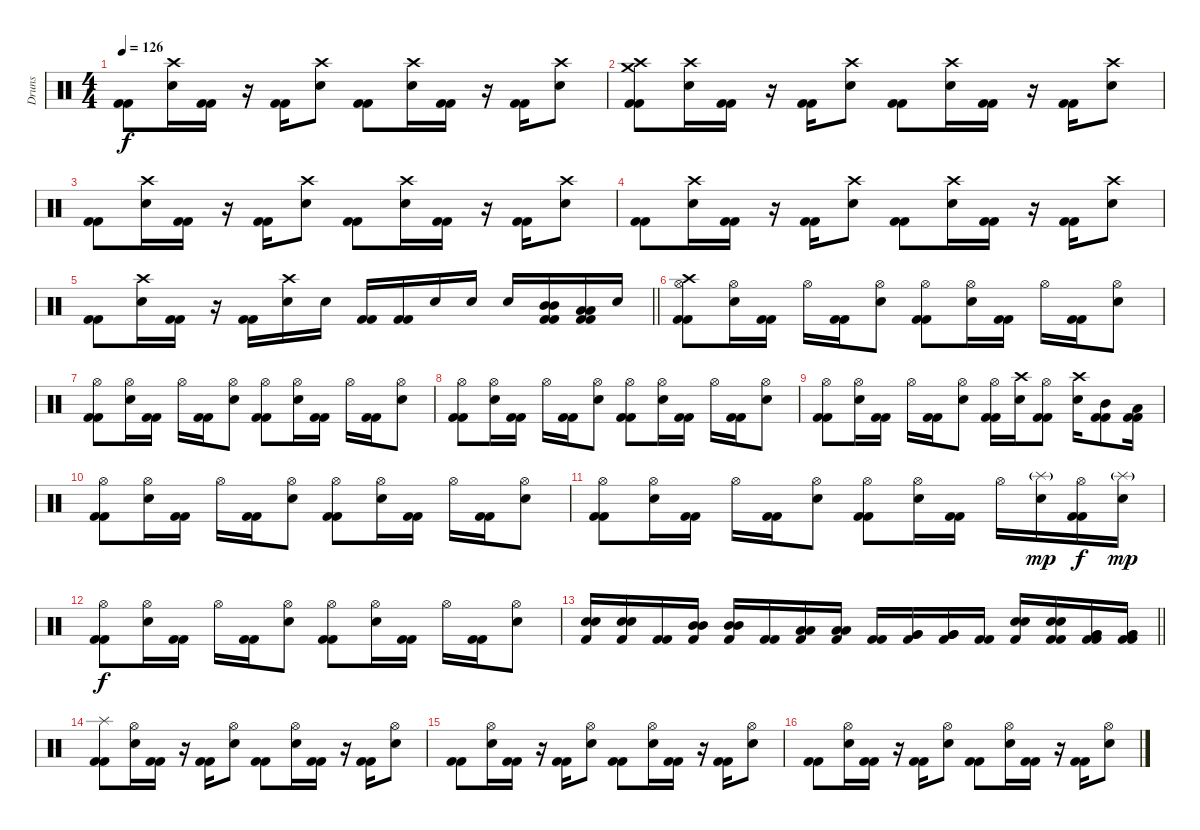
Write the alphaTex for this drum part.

\track ("Druns" "Druns") {instrument percussion}
\staff {score}
\articulation defaults
\ts (4 4)
\tempo 126
\clef neutral
\ks c
("Kick (hit) 2" "Kick (hit) 2").8{dy f} ("Crash high (hit)" "Electric Snare (hit)").16 ("Kick (hit) 2" "Kick (hit) 2").16 r.16 ("Kick (hit) 2" "Kick (hit) 2").16 ("Crash high (hit)" "Electric Snare (hit)").8 ("Kick (hit) 2" "Kick (hit) 2").8 ("Crash high (hit)" "Electric Snare (hit)").16 ("Kick (hit) 2" "Kick (hit) 2").16 r.16 ("Kick (hit) 2" "Kick (hit) 2").16 ("Crash high (hit)" "Electric Snare (hit)").8 |
("Crash medium (hit)" "Crash high (hit)" "Kick (hit) 2" "Kick (hit) 2").8 ("Crash high (hit)" "Electric Snare (hit)").16 ("Kick (hit) 2" "Kick (hit) 2").16 r.16 ("Kick (hit) 2" "Kick (hit) 2").16 ("Crash high (hit)" "Electric Snare (hit)").8 ("Kick (hit) 2" "Kick (hit) 2").8 ("Crash high (hit)" "Electric Snare (hit)").16 ("Kick (hit) 2" "Kick (hit) 2").16 r.16 ("Kick (hit) 2" "Kick (hit) 2").16 ("Crash high (hit)" "Electric Snare (hit)").8 |
("Kick (hit) 2" "Kick (hit) 2").8 ("Crash high (hit)" "Electric Snare (hit)").16 ("Kick (hit) 2" "Kick (hit) 2").16 r.16 ("Kick (hit) 2" "Kick (hit) 2").16 ("Crash high (hit)" "Electric Snare (hit)").8 ("Kick (hit) 2" "Kick (hit) 2").8 ("Crash high (hit)" "Electric Snare (hit)").16 ("Kick (hit) 2" "Kick (hit) 2").16 r.16 ("Kick (hit) 2" "Kick (hit) 2").16 ("Crash high (hit)" "Electric Snare (hit)").8 |
("Kick (hit) 2" "Kick (hit) 2").8 ("Crash high (hit)" "Electric Snare (hit)").16 ("Kick (hit) 2" "Kick (hit) 2").16 r.16 ("Kick (hit) 2" "Kick (hit) 2").16 ("Crash high (hit)" "Electric Snare (hit)").8 ("Kick (hit) 2" "Kick (hit) 2").8 ("Crash high (hit)" "Electric Snare (hit)").16 ("Kick (hit) 2" "Kick (hit) 2").16 r.16 ("Kick (hit) 2" "Kick (hit) 2").16 ("Crash high (hit)" "Electric Snare (hit)").8 |
\barLineRight lightlight
("Kick (hit) 2" "Kick (hit) 2").8 ("Crash high (hit)" "Electric Snare (hit)").16 ("Kick (hit) 2" "Kick (hit) 2").16 r.16 ("Kick (hit) 2" "Kick (hit) 2").16 ("Crash high (hit)" "Electric Snare (hit)").16 "Electric Snare (hit)".16 ("Kick (hit) 2" "Kick (hit) 2").16 ("Kick (hit) 2" "Kick (hit) 2").16 "Electric Snare (hit)".16 "Electric Snare (hit)".16 "Electric Snare (hit)".16 ("Mid Tom (hit)" "Mid Tom (hit)" "Kick (hit) 2" "Kick (hit) 2").16 ("Low Tom (hit)" "Low Tom (hit)" "Kick (hit) 2" "Kick (hit) 2").16 "Electric Snare (hit)".16 |
\section ("" "")
("Crash high (hit)" "Hi-Hat (open)" "Kick (hit) 2" "Kick (hit) 2").8 ("Hi-Hat (open)" "Electric Snare (hit)").16 ("Kick (hit) 2" "Kick (hit) 2").16 "Hi-Hat (open)".16 ("Kick (hit) 2" "Kick (hit) 2").16 ("Hi-Hat (open)" "Electric Snare (hit)").8 ("Hi-Hat (open)" "Kick (hit) 2" "Kick (hit) 2").8 ("Hi-Hat (open)" "Electric Snare (hit)").16 ("Kick (hit) 2" "Kick (hit) 2").16 "Hi-Hat (open)".16 ("Kick (hit) 2" "Kick (hit) 2").16 ("Hi-Hat (open)" "Electric Snare (hit)").8 |
("Hi-Hat (open)" "Kick (hit) 2" "Kick (hit) 2").8 ("Hi-Hat (open)" "Electric Snare (hit)").16 ("Kick (hit) 2" "Kick (hit) 2").16 "Hi-Hat (open)".16 ("Kick (hit) 2" "Kick (hit) 2").16 ("Hi-Hat (open)" "Electric Snare (hit)").8 ("Hi-Hat (open)" "Kick (hit) 2" "Kick (hit) 2").8 ("Hi-Hat (open)" "Electric Snare (hit)").16 ("Kick (hit) 2" "Kick (hit) 2").16 "Hi-Hat (open)".16 ("Kick (hit) 2" "Kick (hit) 2").16 ("Hi-Hat (open)" "Electric Snare (hit)").8 |
("Hi-Hat (open)" "Kick (hit) 2" "Kick (hit) 2").8 ("Hi-Hat (open)" "Electric Snare (hit)").16 ("Kick (hit) 2" "Kick (hit) 2").16 "Hi-Hat (open)".16 ("Kick (hit) 2" "Kick (hit) 2").16 ("Hi-Hat (open)" "Electric Snare (hit)").8 ("Hi-Hat (open)" "Kick (hit) 2" "Kick (hit) 2").8 ("Hi-Hat (open)" "Electric Snare (hit)").16 ("Kick (hit) 2" "Kick (hit) 2").16 "Hi-Hat (open)".16 ("Kick (hit) 2" "Kick (hit) 2").16 ("Hi-Hat (open)" "Electric Snare (hit)").8 |
("Hi-Hat (open)" "Kick (hit) 2" "Kick (hit) 2").8 ("Hi-Hat (open)" "Electric Snare (hit)").16 ("Kick (hit) 2" "Kick (hit) 2").16 "Hi-Hat (open)".16 ("Kick (hit) 2" "Kick (hit) 2").16 ("Hi-Hat (open)" "Electric Snare (hit)").8 ("Hi-Hat (open)" "Kick (hit) 2" "Kick (hit) 2").16 ("Crash high (hit)" "Electric Snare (hit)").16 ("Hi-Hat (open)" "Kick (hit) 2" "Kick (hit) 2").8 ("Crash high (hit)" "Electric Snare (hit)").16 ("Mid Tom (hit)" "Kick (hit) 2" "Kick (hit) 2").8 ("Low Tom (hit)" "Kick (hit) 2" "Kick (hit) 2").16 |
("Hi-Hat (open)" "Kick (hit) 2" "Kick (hit) 2").8 ("Hi-Hat (open)" "Electric Snare (hit)").16 ("Kick (hit) 2" "Kick (hit) 2").16 "Hi-Hat (open)".16 ("Kick (hit) 2" "Kick (hit) 2").16 ("Hi-Hat (open)" "Electric Snare (hit)").8 ("Hi-Hat (open)" "Kick (hit) 2" "Kick (hit) 2").8 ("Hi-Hat (open)" "Electric Snare (hit)").16 ("Kick (hit) 2" "Kick (hit) 2").16 "Hi-Hat (open)".16 ("Kick (hit) 2" "Kick (hit) 2").16 ("Hi-Hat (open)" "Electric Snare (hit)").8 |
("Hi-Hat (open)" "Kick (hit) 2" "Kick (hit) 2").8 ("Hi-Hat (open)" "Electric Snare (hit)").16 ("Kick (hit) 2" "Kick (hit) 2").16 "Hi-Hat (open)".16 ("Kick (hit) 2" "Kick (hit) 2").16 ("Hi-Hat (open)" "Electric Snare (hit)").8 ("Hi-Hat (open)" "Kick (hit) 2" "Kick (hit) 2").8 ("Hi-Hat (open)" "Electric Snare (hit)").16 ("Kick (hit) 2" "Kick (hit) 2").16 "Hi-Hat (open)".16 ("Splash (hit)"{g} "Electric Snare (hit)").16{dy mp} ("Hi-Hat (open)" "Kick (hit) 2" "Kick (hit) 2").16{dy f} ("Splash (hit)"{g} "Electric Snare (hit)").16{dy mp} |
("Hi-Hat (open)" "Kick (hit) 2" "Kick (hit) 2").8{dy f} ("Hi-Hat (open)" "Electric Snare (hit)").16 ("Kick (hit) 2" "Kick (hit) 2").16 "Hi-Hat (open)".16 ("Kick (hit) 2" "Kick (hit) 2").16 ("Hi-Hat (open)" "Electric Snare (hit)").8 ("Hi-Hat (open)" "Kick (hit) 2" "Kick (hit) 2").8 ("Hi-Hat (open)" "Electric Snare (hit)").16 ("Kick (hit) 2" "Kick (hit) 2").16 "Hi-Hat (open)".16 ("Kick (hit) 2" "Kick (hit) 2").16 ("Hi-Hat (open)" "Electric Snare (hit)").8 |
\barLineRight lightlight
("Electric Snare (hit)" "Electric Snare (hit)" "Kick (hit) 2").16 ("Electric Snare (hit)" "Electric Snare (hit)" "Kick (hit) 2").16 ("Kick (hit) 2" "Kick (hit) 2").16 ("Mid Tom (hit)" "Mid Tom (hit)" "Kick (hit) 2").16 ("Mid Tom (hit)" "Mid Tom (hit)" "Kick (hit) 2").16 ("Kick (hit) 2" "Kick (hit) 2").16 ("Low Tom (hit)" "Low Tom (hit)" "Kick (hit) 2").16 ("Low Tom (hit)" "Low Tom (hit)" "Kick (hit) 2").16 ("Kick (hit) 2" "Kick (hit) 2").16 ("Very Low Tom (hit)" "Very Low Tom (hit)" "Kick (hit) 2").16 ("Very Low Tom (hit)" "Very Low Tom (hit)" "Kick (hit) 2").16 ("Kick (hit) 2" "Kick (hit) 2").16 ("Electric Snare (hit)" "Electric Snare (hit)" "Kick (hit) 2").16 ("Electric Snare (hit)" "Electric Snare (hit)" "Kick (hit) 2" "Kick (hit) 2").16 ("Very Low Tom (hit)" "Very Low Tom (hit)" "Kick (hit) 2" "Kick (hit) 2").16 ("Very Low Tom (hit)" "Very Low Tom (hit)" "Kick (hit) 2" "Kick (hit) 2").16 |
("Splash (hit)" "Kick (hit) 2" "Kick (hit) 2").8 ("Hi-Hat (open)" "Electric Snare (hit)").16 ("Kick (hit) 2" "Kick (hit) 2").16 r.16 ("Kick (hit) 2" "Kick (hit) 2").16 ("Hi-Hat (open)" "Electric Snare (hit)").8 ("Kick (hit) 2" "Kick (hit) 2").8 ("Hi-Hat (open)" "Electric Snare (hit)").16 ("Kick (hit) 2" "Kick (hit) 2").16 r.16 ("Kick (hit) 2" "Kick (hit) 2").16 ("Hi-Hat (open)" "Electric Snare (hit)").8 |
("Kick (hit) 2" "Kick (hit) 2").8 ("Hi-Hat (open)" "Electric Snare (hit)").16 ("Kick (hit) 2" "Kick (hit) 2").16 r.16 ("Kick (hit) 2" "Kick (hit) 2").16 ("Hi-Hat (open)" "Electric Snare (hit)").8 ("Kick (hit) 2" "Kick (hit) 2").8 ("Hi-Hat (open)" "Electric Snare (hit)").16 ("Kick (hit) 2" "Kick (hit) 2").16 r.16 ("Kick (hit) 2" "Kick (hit) 2").16 ("Hi-Hat (open)" "Electric Snare (hit)").8 |
("Kick (hit) 2" "Kick (hit) 2").8 ("Hi-Hat (open)" "Electric Snare (hit)").16 ("Kick (hit) 2" "Kick (hit) 2").16 r.16 ("Kick (hit) 2" "Kick (hit) 2").16 ("Hi-Hat (open)" "Electric Snare (hit)").8 ("Kick (hit) 2" "Kick (hit) 2").8 ("Hi-Hat (open)" "Electric Snare (hit)").16 ("Kick (hit) 2" "Kick (hit) 2").16 r.16 ("Kick (hit) 2" "Kick (hit) 2").16 ("Hi-Hat (open)" "Electric Snare (hit)").8
